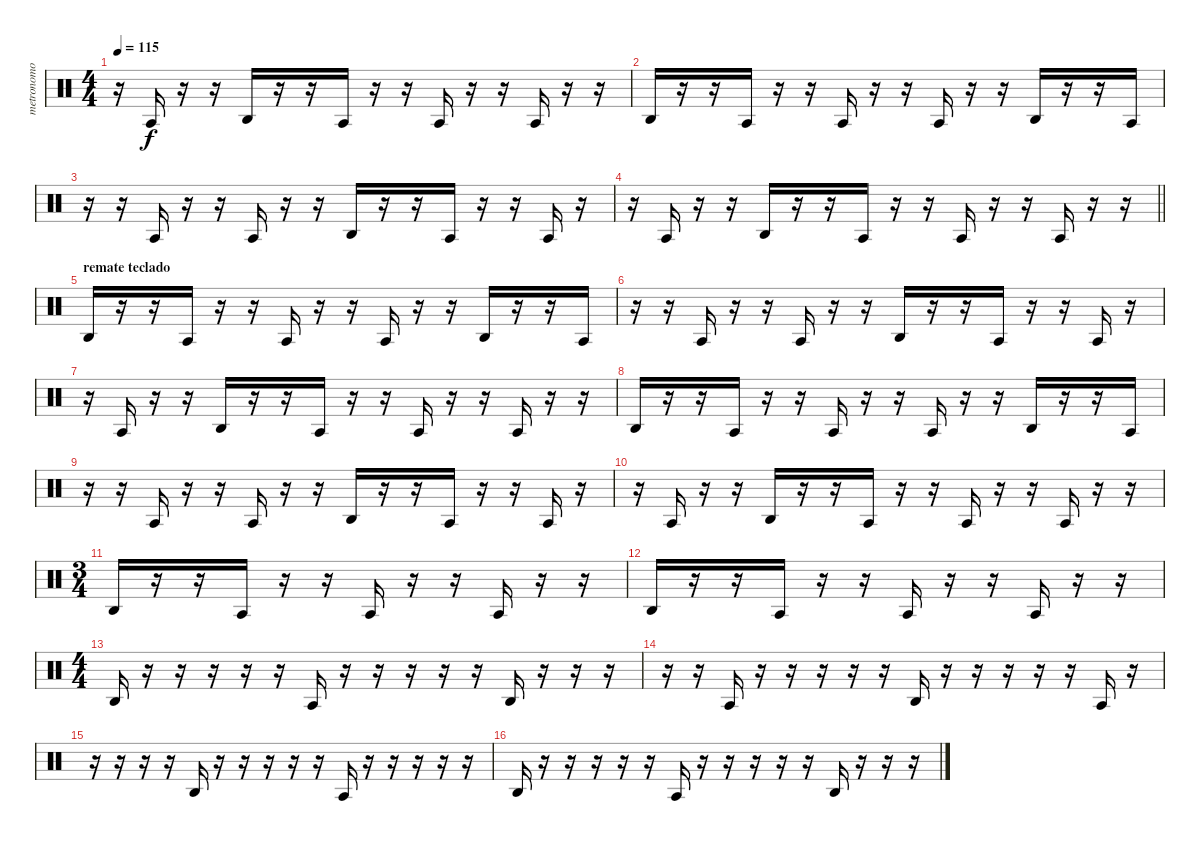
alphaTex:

\track ("metronomo" "metronomo") {instrument percussion}
\staff {score}
\articulation defaults
\ts (4 4)
\tempo 115
\clef neutral
\ks c
r.16{dy f} "Agogo tow (hit)".16 r.16 r.16 "Agogo high (hit)".16 r.16 r.16 "Agogo tow (hit)".16 r.16 r.16 "Agogo tow (hit)".16 r.16 r.16 "Agogo tow (hit)".16 r.16 r.16 |
"Agogo high (hit)".16 r.16 r.16 "Agogo tow (hit)".16 r.16 r.16 "Agogo tow (hit)".16 r.16 r.16 "Agogo tow (hit)".16 r.16 r.16 "Agogo high (hit)".16 r.16 r.16 "Agogo tow (hit)".16 |
r.16 r.16 "Agogo tow (hit)".16 r.16 r.16 "Agogo tow (hit)".16 r.16 r.16 "Agogo high (hit)".16 r.16 r.16 "Agogo tow (hit)".16 r.16 r.16 "Agogo tow (hit)".16 r.16 |
\barLineRight lightlight
r.16 "Agogo tow (hit)".16 r.16 r.16 "Agogo high (hit)".16 r.16 r.16 "Agogo tow (hit)".16 r.16 r.16 "Agogo tow (hit)".16 r.16 r.16 "Agogo tow (hit)".16 r.16 r.16 |
\section ("" "remate teclado")
"Agogo high (hit)".16 r.16 r.16 "Agogo tow (hit)".16 r.16 r.16 "Agogo tow (hit)".16 r.16 r.16 "Agogo tow (hit)".16 r.16 r.16 "Agogo high (hit)".16 r.16 r.16 "Agogo tow (hit)".16 |
r.16 r.16 "Agogo tow (hit)".16 r.16 r.16 "Agogo tow (hit)".16 r.16 r.16 "Agogo high (hit)".16 r.16 r.16 "Agogo tow (hit)".16 r.16 r.16 "Agogo tow (hit)".16 r.16 |
r.16 "Agogo tow (hit)".16 r.16 r.16 "Agogo high (hit)".16 r.16 r.16 "Agogo tow (hit)".16 r.16 r.16 "Agogo tow (hit)".16 r.16 r.16 "Agogo tow (hit)".16 r.16 r.16 |
"Agogo high (hit)".16 r.16 r.16 "Agogo tow (hit)".16 r.16 r.16 "Agogo tow (hit)".16 r.16 r.16 "Agogo tow (hit)".16 r.16 r.16 "Agogo high (hit)".16 r.16 r.16 "Agogo tow (hit)".16 |
r.16 r.16 "Agogo tow (hit)".16 r.16 r.16 "Agogo tow (hit)".16 r.16 r.16 "Agogo high (hit)".16 r.16 r.16 "Agogo tow (hit)".16 r.16 r.16 "Agogo tow (hit)".16 r.16 |
r.16 "Agogo tow (hit)".16 r.16 r.16 "Agogo high (hit)".16 r.16 r.16 "Agogo tow (hit)".16 r.16 r.16 "Agogo tow (hit)".16 r.16 r.16 "Agogo tow (hit)".16 r.16 r.16 |
\ts (3 4)
"Agogo high (hit)".16 r.16 r.16 "Agogo tow (hit)".16 r.16 r.16 "Agogo tow (hit)".16 r.16 r.16 "Agogo tow (hit)".16 r.16 r.16 |
"Agogo high (hit)".16 r.16 r.16 "Agogo tow (hit)".16 r.16 r.16 "Agogo tow (hit)".16 r.16 r.16 "Agogo tow (hit)".16 r.16 r.16 |
\ts (4 4)
"Agogo high (hit)".16 r.16 r.16 r.16 r.16 r.16 "Agogo tow (hit)".16 r.16 r.16 r.16 r.16 r.16 "Agogo high (hit)".16 r.16 r.16 r.16 |
r.16 r.16 "Agogo tow (hit)".16 r.16 r.16 r.16 r.16 r.16 "Agogo high (hit)".16 r.16 r.16 r.16 r.16 r.16 "Agogo tow (hit)".16 r.16 |
r.16 r.16 r.16 r.16 "Agogo high (hit)".16 r.16 r.16 r.16 r.16 r.16 "Agogo tow (hit)".16 r.16 r.16 r.16 r.16 r.16 |
"Agogo high (hit)".16 r.16 r.16 r.16 r.16 r.16 "Agogo tow (hit)".16 r.16 r.16 r.16 r.16 r.16 "Agogo high (hit)".16 r.16 r.16 r.16
